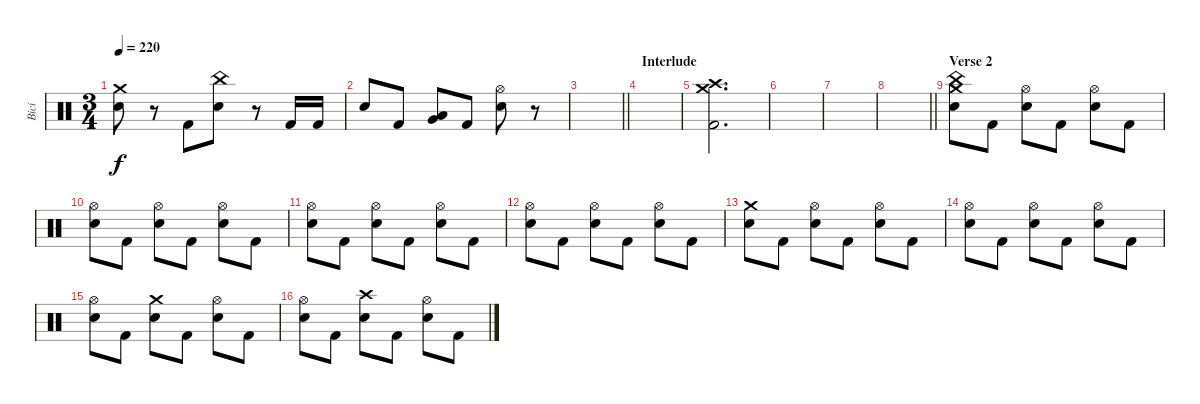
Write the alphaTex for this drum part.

\track ("Bicí" "Bicí") {instrument percussion}
\staff {score}
\articulation defaults
\ts (3 4)
\tempo 220
\clef neutral
\ks c
("Crash medium (hit)" "Electric Snare (hit)").8{dy f} r.8 "Kick (hit) 2".8 ("China (hit)" "Electric Snare (hit)").8 r.8 "Kick (hit) 2".16 "Kick (hit) 2".16 |
"Electric Snare (hit)".8 "Kick (hit) 2".8 ("Low Tom (hit)" "Very Low Tom (hit)").8 "Kick (hit) 2".8 ("Hi-Hat (open)" "Electric Snare (hit)").8 r.8 |
\barLineRight lightlight
|
\section ("" "Interlude")
|
("Crash medium (hit)" "Crash high (hit)" "Kick (hit) 2").2{d} |
|
|
\barLineRight lightlight
|
\section ("" "Verse 2")
("Crash medium (hit)" "China (hit)" "Electric Snare (hit)").8 "Kick (hit) 2".8 ("Hi-Hat (open)" "Electric Snare (hit)").8 "Kick (hit) 2".8 ("Hi-Hat (open)" "Electric Snare (hit)").8 "Kick (hit) 2".8 |
("Hi-Hat (open)" "Electric Snare (hit)").8 "Kick (hit) 2".8 ("Hi-Hat (open)" "Electric Snare (hit)").8 "Kick (hit) 2".8 ("Hi-Hat (open)" "Electric Snare (hit)").8 "Kick (hit) 2".8 |
("Hi-Hat (open)" "Electric Snare (hit)").8 "Kick (hit) 2".8 ("Hi-Hat (open)" "Electric Snare (hit)").8 "Kick (hit) 2".8 ("Hi-Hat (open)" "Electric Snare (hit)").8 "Kick (hit) 2".8 |
("Hi-Hat (open)" "Electric Snare (hit)").8 "Kick (hit) 2".8 ("Hi-Hat (open)" "Electric Snare (hit)").8 "Kick (hit) 2".8 ("Hi-Hat (open)" "Electric Snare (hit)").8 "Kick (hit) 2".8 |
("Crash medium (hit)" "Electric Snare (hit)").8 "Kick (hit) 2".8 ("Hi-Hat (open)" "Electric Snare (hit)").8 "Kick (hit) 2".8 ("Hi-Hat (open)" "Electric Snare (hit)").8 "Kick (hit) 2".8 |
("Hi-Hat (open)" "Electric Snare (hit)").8 "Kick (hit) 2".8 ("Hi-Hat (open)" "Electric Snare (hit)").8 "Kick (hit) 2".8 ("Hi-Hat (open)" "Electric Snare (hit)").8 "Kick (hit) 2".8 |
("Hi-Hat (open)" "Electric Snare (hit)").8 "Kick (hit) 2".8 ("Crash medium (hit)" "Electric Snare (hit)").8 "Kick (hit) 2".8 ("Hi-Hat (open)" "Electric Snare (hit)").8 "Kick (hit) 2".8 |
("Hi-Hat (open)" "Electric Snare (hit)").8 "Kick (hit) 2".8 ("Crash high (hit)" "Electric Snare (hit)").8 "Kick (hit) 2".8 ("Hi-Hat (open)" "Electric Snare (hit)").8 "Kick (hit) 2".8
